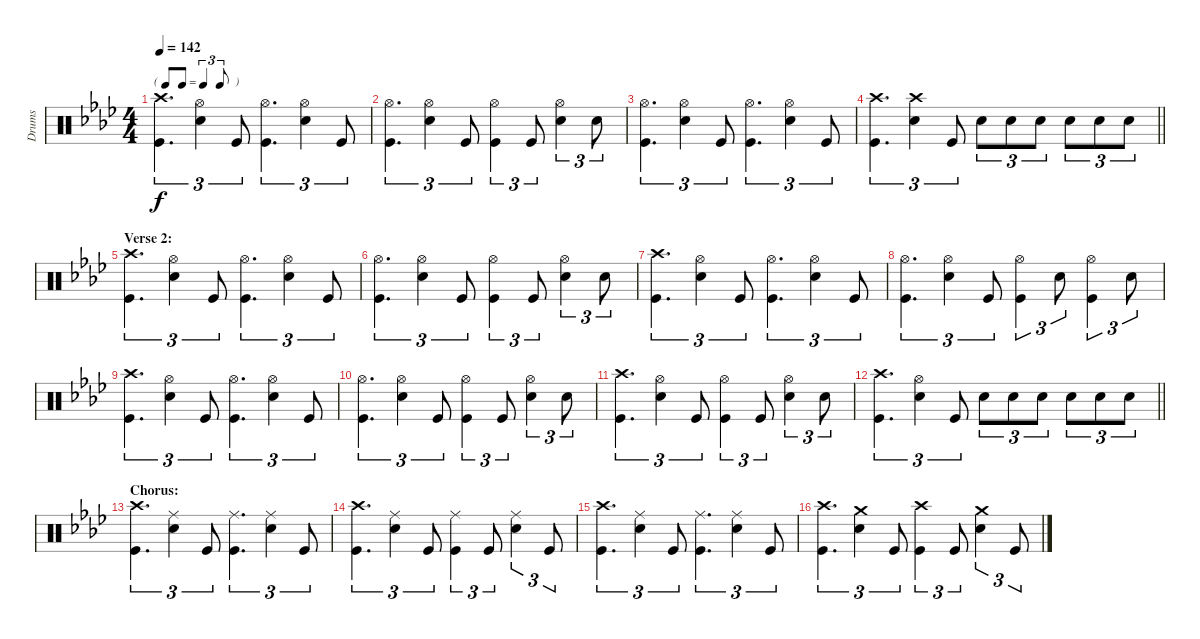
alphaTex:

\track ("Drums" "Drums") {instrument percussion}
\staff {score}
\articulation defaults
\ts (4 4)
\tf triplet8th
\tempo 142
\clef neutral
\ks ab
("Crash high (hit)" "Kick (hit)").4{d tu (3 2) dy f} ("Hi-Hat (open)" "Snare (hit) 2").4{tu (3 2)} "Kick (hit)".8{tu (3 2)} ("Kick (hit)" "Hi-Hat (open)").4{d tu (3 2)} ("Snare (hit) 2" "Hi-Hat (open)").4{tu (3 2)} "Kick (hit)".8{tu (3 2)} |
("Kick (hit)" "Hi-Hat (open)").4{d tu (3 2)} ("Hi-Hat (open)" "Snare (hit) 2").4{tu (3 2)} "Kick (hit)".8{tu (3 2)} ("Kick (hit)" "Hi-Hat (open)").4{tu (3 2)} "Kick (hit)".8{tu (3 2)} ("Snare (hit) 2" "Hi-Hat (open)").4{tu (3 2)} "Snare (hit) 2".8{tu (3 2)} |
("Kick (hit)" "Hi-Hat (open)").4{d tu (3 2)} ("Snare (hit) 2" "Hi-Hat (open)").4{tu (3 2)} "Kick (hit)".8{tu (3 2)} ("Kick (hit)" "Hi-Hat (open)").4{d tu (3 2)} ("Snare (hit) 2" "Hi-Hat (open)").4{tu (3 2)} "Kick (hit)".8{tu (3 2)} |
\barLineRight lightlight
("Kick (hit)" "Crash high (hit)").4{d tu (3 2)} ("Snare (hit) 2" "Crash high (hit)").4{tu (3 2)} "Kick (hit)".8{tu (3 2)} "Snare (hit) 2".8{tu (3 2)} "Snare (hit) 2".8{tu (3 2)} "Snare (hit) 2".8{tu (3 2)} "Snare (hit) 2".8{tu (3 2)} "Snare (hit) 2".8{tu (3 2)} "Snare (hit) 2".8{tu (3 2)} |
\section ("" "Verse 2:")
("Crash high (hit)" "Kick (hit)").4{d tu (3 2)} ("Hi-Hat (open)" "Snare (hit) 2").4{tu (3 2)} "Kick (hit)".8{tu (3 2)} ("Kick (hit)" "Hi-Hat (open)").4{d tu (3 2)} ("Snare (hit) 2" "Hi-Hat (open)").4{tu (3 2)} "Kick (hit)".8{tu (3 2)} |
("Kick (hit)" "Hi-Hat (open)").4{d tu (3 2)} ("Hi-Hat (open)" "Snare (hit) 2").4{tu (3 2)} "Kick (hit)".8{tu (3 2)} ("Kick (hit)" "Hi-Hat (open)").4{tu (3 2)} "Kick (hit)".8{tu (3 2)} ("Snare (hit) 2" "Hi-Hat (open)").4{tu (3 2)} "Snare (hit) 2".8{tu (3 2)} |
("Crash high (hit)" "Kick (hit)").4{d tu (3 2)} ("Hi-Hat (open)" "Snare (hit) 2").4{tu (3 2)} "Kick (hit)".8{tu (3 2)} ("Kick (hit)" "Hi-Hat (open)").4{d tu (3 2)} ("Snare (hit) 2" "Hi-Hat (open)").4{tu (3 2)} "Kick (hit)".8{tu (3 2)} |
("Kick (hit)" "Hi-Hat (open)").4{d tu (3 2)} ("Snare (hit) 2" "Hi-Hat (open)").4{tu (3 2)} "Kick (hit)".8{tu (3 2)} ("Kick (hit)" "Hi-Hat (open)").4{tu (3 2)} "Snare (hit) 2".8{tu (3 2)} ("Kick (hit)" "Hi-Hat (open)").4{tu (3 2)} "Snare (hit) 2".8{tu (3 2)} |
("Kick (hit)" "Crash high (hit)").4{d tu (3 2)} ("Snare (hit) 2" "Hi-Hat (open)").4{tu (3 2)} "Kick (hit)".8{tu (3 2)} ("Kick (hit)" "Hi-Hat (open)").4{d tu (3 2)} ("Snare (hit) 2" "Hi-Hat (open)").4{tu (3 2)} "Kick (hit)".8{tu (3 2)} |
("Hi-Hat (open)" "Kick (hit)").4{d tu (3 2)} ("Hi-Hat (open)" "Snare (hit) 2").4{tu (3 2)} "Kick (hit)".8{tu (3 2)} ("Kick (hit)" "Hi-Hat (open)").4{tu (3 2)} "Kick (hit)".8{tu (3 2)} ("Snare (hit) 2" "Hi-Hat (open)").4{tu (3 2)} "Snare (hit) 2".8{tu (3 2)} |
("Kick (hit)" "Crash high (hit)").4{d tu (3 2)} ("Hi-Hat (open)" "Snare (hit) 2").4{tu (3 2)} "Kick (hit)".8{tu (3 2)} ("Kick (hit)" "Hi-Hat (open)").4{tu (3 2)} "Kick (hit)".8{tu (3 2)} ("Snare (hit) 2" "Hi-Hat (open)").4{tu (3 2)} "Snare (hit) 2".8{tu (3 2)} |
\barLineRight lightlight
("Kick (hit)" "Crash high (hit)").4{d tu (3 2)} ("Snare (hit) 2" "Hi-Hat (open)").4{tu (3 2)} "Kick (hit)".8{tu (3 2)} "Snare (hit) 2".8{tu (3 2)} "Snare (hit) 2".8{tu (3 2)} "Snare (hit) 2".8{tu (3 2)} "Snare (hit) 2".8{tu (3 2)} "Snare (hit) 2".8{tu (3 2)} "Snare (hit) 2".8{tu (3 2)} |
\section ("" "Chorus:")
("Crash high (hit)" "Kick (hit)").4{d tu (3 2)} ("Snare (hit) 2" "Ride (middle)").4{tu (3 2)} "Kick (hit)".8{tu (3 2)} ("Kick (hit)" "Ride (middle)").4{d tu (3 2)} ("Snare (hit) 2" "Ride (middle)").4{tu (3 2)} "Kick (hit)".8{tu (3 2)} |
("Kick (hit)" "Crash high (hit)").4{d tu (3 2)} ("Snare (hit) 2" "Ride (middle)").4{tu (3 2)} "Kick (hit)".8{tu (3 2)} ("Kick (hit)" "Ride (middle)").4{tu (3 2)} "Kick (hit)".8{tu (3 2)} ("Snare (hit) 2" "Ride (middle)").4{tu (3 2)} "Kick (hit)".8{tu (3 2)} |
("Crash high (hit)" "Kick (hit)").4{d tu (3 2)} ("Snare (hit) 2" "Ride (middle)").4{tu (3 2)} "Kick (hit)".8{tu (3 2)} ("Kick (hit)" "Ride (middle)").4{d tu (3 2)} ("Snare (hit) 2" "Ride (middle)").4{tu (3 2)} "Kick (hit)".8{tu (3 2)} |
("Kick (hit)" "Crash high (hit)").4{d tu (3 2)} ("Snare (hit) 2" "Crash medium (hit)").4{tu (3 2)} "Kick (hit)".8{tu (3 2)} ("Kick (hit)" "Crash high (hit)").4{tu (3 2)} "Kick (hit)".8{tu (3 2)} ("Snare (hit) 2" "Crash medium (hit)").4{tu (3 2)} "Kick (hit)".8{tu (3 2)}
